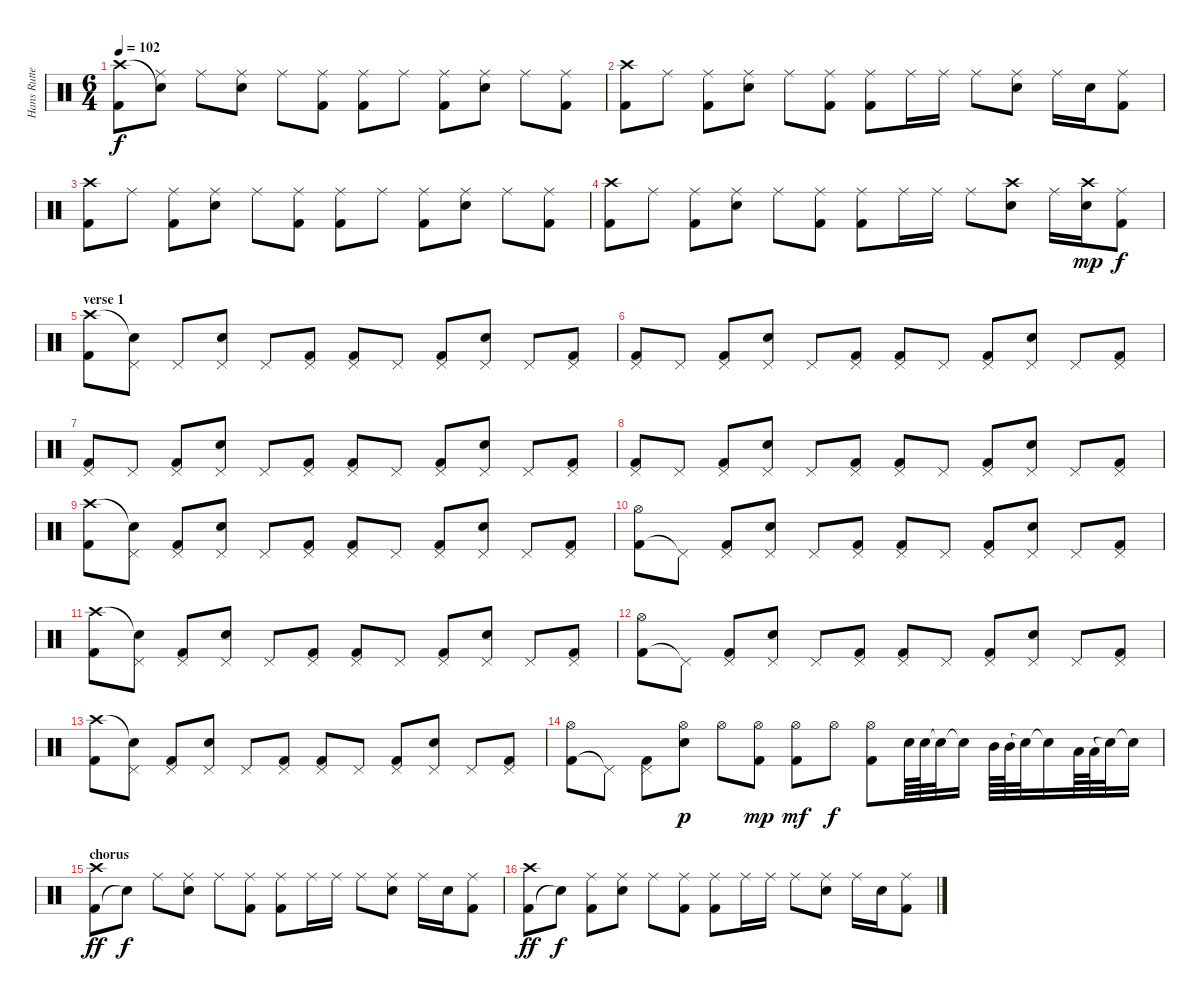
\track ("Hans Rutten" "Hans Rutte") {instrument percussion}
\staff {score}
\articulation defaults
\ts (6 4)
\tempo 102
\clef neutral
\ks c
("Kick (hit) 2" "Crash high (hit)").8{dy f} ("Ride (middle)" "Snare (hit)"{t}).8 "Ride (middle)".8 ("Ride (middle)" "Snare (hit) 2").8 "Ride (middle)".8 ("Kick (hit) 2" "Ride (middle)").8 ("Kick (hit) 2" "Ride (middle)").8 "Ride (middle)".8 ("Kick (hit) 2" "Ride (middle)").8 ("Ride (middle)" "Snare (hit) 2").8 "Ride (middle)".8 ("Kick (hit) 2" "Ride (middle)").8 |
("Kick (hit) 2" "Crash high (hit)").8 "Ride (middle)".8 ("Kick (hit) 2" "Ride (middle)").8 ("Ride (middle)" "Snare (hit) 2").8 "Ride (middle)".8 ("Kick (hit) 2" "Ride (middle)").8 ("Kick (hit) 2" "Ride (middle)").8 "Ride (middle)".16 "Ride (middle)".16 "Ride (middle)".8 ("Ride (middle)" "Snare (hit) 2").8 "Ride (middle)".16 "Snare (hit) 2".16 ("Kick (hit) 2" "Ride (middle)").8 |
("Kick (hit) 2" "Crash high (hit)").8 "Ride (middle)".8 ("Kick (hit) 2" "Ride (middle)").8 ("Ride (middle)" "Snare (hit) 2").8 "Ride (middle)".8 ("Kick (hit) 2" "Ride (middle)").8 ("Kick (hit) 2" "Ride (middle)").8 "Ride (middle)".8 ("Kick (hit) 2" "Ride (middle)").8 ("Ride (middle)" "Snare (hit) 2").8 "Ride (middle)".8 ("Kick (hit) 2" "Ride (middle)").8 |
("Kick (hit) 2" "Crash high (hit)").8 "Ride (middle)".8 ("Kick (hit) 2" "Ride (middle)").8 ("Ride (middle)" "Snare (hit) 2").8 "Ride (middle)".8 ("Kick (hit) 2" "Ride (middle)").8 ("Kick (hit) 2" "Ride (middle)").8 "Ride (middle)".16 "Ride (middle)".16 "Ride (middle)".8 ("Crash high (hit)" "Snare (hit) 2").8 "Ride (middle)".16 ("Crash high (hit)" "Snare (hit) 2").16{dy mp} ("Kick (hit) 2" "Ride (middle)").8{dy f} |
\section ("" "verse 1")
("Kick (hit) 2" "Crash high (hit)").8 ("Pedal Hi-Hat (hit)" "Snare (hit)"{t}).8 "Pedal Hi-Hat (hit)".8 ("Pedal Hi-Hat (hit)" "Snare (hit) 2").8 "Pedal Hi-Hat (hit)".8 ("Kick (hit) 2" "Pedal Hi-Hat (hit)").8 ("Kick (hit) 2" "Pedal Hi-Hat (hit)").8 "Pedal Hi-Hat (hit)".8 ("Kick (hit) 2" "Pedal Hi-Hat (hit)").8 ("Pedal Hi-Hat (hit)" "Snare (hit) 2").8 "Pedal Hi-Hat (hit)".8 ("Kick (hit) 2" "Pedal Hi-Hat (hit)").8 |
("Kick (hit) 2" "Pedal Hi-Hat (hit)").8 "Pedal Hi-Hat (hit)".8 ("Kick (hit) 2" "Pedal Hi-Hat (hit)").8 ("Pedal Hi-Hat (hit)" "Snare (hit) 2").8 "Pedal Hi-Hat (hit)".8 ("Kick (hit) 2" "Pedal Hi-Hat (hit)").8 ("Kick (hit) 2" "Pedal Hi-Hat (hit)").8 "Pedal Hi-Hat (hit)".8 ("Kick (hit) 2" "Pedal Hi-Hat (hit)").8 ("Pedal Hi-Hat (hit)" "Snare (hit) 2").8 "Pedal Hi-Hat (hit)".8 ("Kick (hit) 2" "Pedal Hi-Hat (hit)").8 |
("Kick (hit) 2" "Pedal Hi-Hat (hit)").8 "Pedal Hi-Hat (hit)".8 ("Kick (hit) 2" "Pedal Hi-Hat (hit)").8 ("Pedal Hi-Hat (hit)" "Snare (hit) 2").8 "Pedal Hi-Hat (hit)".8 ("Kick (hit) 2" "Pedal Hi-Hat (hit)").8 ("Kick (hit) 2" "Pedal Hi-Hat (hit)").8 "Pedal Hi-Hat (hit)".8 ("Kick (hit) 2" "Pedal Hi-Hat (hit)").8 ("Pedal Hi-Hat (hit)" "Snare (hit) 2").8 "Pedal Hi-Hat (hit)".8 ("Kick (hit) 2" "Pedal Hi-Hat (hit)").8 |
("Kick (hit) 2" "Pedal Hi-Hat (hit)").8 "Pedal Hi-Hat (hit)".8 ("Kick (hit) 2" "Pedal Hi-Hat (hit)").8 ("Pedal Hi-Hat (hit)" "Snare (hit) 2").8 "Pedal Hi-Hat (hit)".8 ("Kick (hit) 2" "Pedal Hi-Hat (hit)").8 ("Kick (hit) 2" "Pedal Hi-Hat (hit)").8 "Pedal Hi-Hat (hit)".8 ("Kick (hit) 2" "Pedal Hi-Hat (hit)").8 ("Pedal Hi-Hat (hit)" "Snare (hit) 2").8 "Pedal Hi-Hat (hit)".8 ("Kick (hit) 2" "Pedal Hi-Hat (hit)").8 |
("Kick (hit) 2" "Crash high (hit)").8 ("Pedal Hi-Hat (hit)" "Snare (hit)"{t}).8 ("Kick (hit) 2" "Pedal Hi-Hat (hit)").8 ("Pedal Hi-Hat (hit)" "Snare (hit) 2").8 "Pedal Hi-Hat (hit)".8 ("Kick (hit) 2" "Pedal Hi-Hat (hit)").8 ("Kick (hit) 2" "Pedal Hi-Hat (hit)").8 "Pedal Hi-Hat (hit)".8 ("Kick (hit) 2" "Pedal Hi-Hat (hit)").8 ("Pedal Hi-Hat (hit)" "Snare (hit) 2").8 "Pedal Hi-Hat (hit)".8 ("Kick (hit) 2" "Pedal Hi-Hat (hit)").8 |
("Kick (hit) 2" "Hi-Hat (open)").8 "Pedal Hi-Hat (hit)"{t}.8 ("Kick (hit) 2" "Pedal Hi-Hat (hit)").8 ("Pedal Hi-Hat (hit)" "Snare (hit) 2").8 "Pedal Hi-Hat (hit)".8 ("Kick (hit) 2" "Pedal Hi-Hat (hit)").8 ("Kick (hit) 2" "Pedal Hi-Hat (hit)").8 "Pedal Hi-Hat (hit)".8 ("Kick (hit) 2" "Pedal Hi-Hat (hit)").8 ("Pedal Hi-Hat (hit)" "Snare (hit) 2").8 "Pedal Hi-Hat (hit)".8 ("Kick (hit) 2" "Pedal Hi-Hat (hit)").8 |
("Kick (hit) 2" "Crash high (hit)").8 ("Pedal Hi-Hat (hit)" "Snare (hit)"{t}).8 ("Kick (hit) 2" "Pedal Hi-Hat (hit)").8 ("Pedal Hi-Hat (hit)" "Snare (hit) 2").8 "Pedal Hi-Hat (hit)".8 ("Kick (hit) 2" "Pedal Hi-Hat (hit)").8 ("Kick (hit) 2" "Pedal Hi-Hat (hit)").8 "Pedal Hi-Hat (hit)".8 ("Kick (hit) 2" "Pedal Hi-Hat (hit)").8 ("Pedal Hi-Hat (hit)" "Snare (hit) 2").8 "Pedal Hi-Hat (hit)".8 ("Kick (hit) 2" "Pedal Hi-Hat (hit)").8 |
("Kick (hit) 2" "Hi-Hat (open)").8 "Pedal Hi-Hat (hit)"{t}.8 ("Kick (hit) 2" "Pedal Hi-Hat (hit)").8 ("Pedal Hi-Hat (hit)" "Snare (hit) 2").8 "Pedal Hi-Hat (hit)".8 ("Kick (hit) 2" "Pedal Hi-Hat (hit)").8 ("Kick (hit) 2" "Pedal Hi-Hat (hit)").8 "Pedal Hi-Hat (hit)".8 ("Kick (hit) 2" "Pedal Hi-Hat (hit)").8 ("Pedal Hi-Hat (hit)" "Snare (hit) 2").8 "Pedal Hi-Hat (hit)".8 ("Kick (hit) 2" "Pedal Hi-Hat (hit)").8 |
("Kick (hit) 2" "Crash high (hit)").8 ("Pedal Hi-Hat (hit)" "Snare (hit)"{t}).8 ("Kick (hit) 2" "Pedal Hi-Hat (hit)").8 ("Pedal Hi-Hat (hit)" "Snare (hit) 2").8 "Pedal Hi-Hat (hit)".8 ("Kick (hit) 2" "Pedal Hi-Hat (hit)").8 ("Kick (hit) 2" "Pedal Hi-Hat (hit)").8 "Pedal Hi-Hat (hit)".8 ("Kick (hit) 2" "Pedal Hi-Hat (hit)").8 ("Pedal Hi-Hat (hit)" "Snare (hit) 2").8 "Pedal Hi-Hat (hit)".8 ("Kick (hit) 2" "Pedal Hi-Hat (hit)").8 |
("Kick (hit) 2" "Hi-Hat (open)").8 "Pedal Hi-Hat (hit)"{t}.8 ("Kick (hit) 2" "Pedal Hi-Hat (hit)").8 ("Hi-Hat (open)" "Snare (hit) 2").8{dy p} "Hi-Hat (open)".8 ("Kick (hit) 2" "Hi-Hat (open)").8{dy mp} ("Kick (hit) 2" "Hi-Hat (open)").8{dy mf} "Hi-Hat (open)".8{dy f} ("Kick (hit) 2" "Hi-Hat (open)").8 "Snare (hit) 2".64 "Snare (hit) 2".64 "Snare (hit)"{t}.32 "Snare (hit)"{t}.16 "Mid Tom (hit)".64 "Mid Tom (hit)".64 "Snare (hit)"{t}.32 "Snare (hit)"{t}.16 "Low Tom (hit)".64 "Low Tom (hit)".64 "Snare (hit)"{t}.32 "Snare (hit)"{t}.16 |
\section ("" "chorus")
("Kick (hit) 2" "Crash high (hit)").8{dy ff} "Snare (hit)"{t}.8{dy f} "Ride (middle)".8 ("Ride (middle)" "Snare (hit) 2").8 "Ride (middle)".8 ("Kick (hit) 2" "Ride (middle)").8 ("Kick (hit) 2" "Ride (middle)").8 "Ride (middle)".16 "Ride (middle)".16 "Ride (middle)".8 ("Ride (middle)" "Snare (hit) 2").8 "Ride (middle)".16 "Snare (hit) 2".16 ("Kick (hit) 2" "Ride (middle)").8 |
("Kick (hit) 2" "Crash high (hit)").8{dy ff} "Snare (hit)"{t}.8{dy f} ("Kick (hit) 2" "Ride (middle)").8 ("Ride (middle)" "Snare (hit) 2").8 "Ride (middle)".8 ("Kick (hit) 2" "Ride (middle)").8 ("Kick (hit) 2" "Ride (middle)").8 "Ride (middle)".16 "Ride (middle)".16 "Ride (middle)".8 ("Ride (middle)" "Snare (hit) 2").8 "Ride (middle)".16 "Snare (hit) 2".16 ("Kick (hit) 2" "Ride (middle)").8
